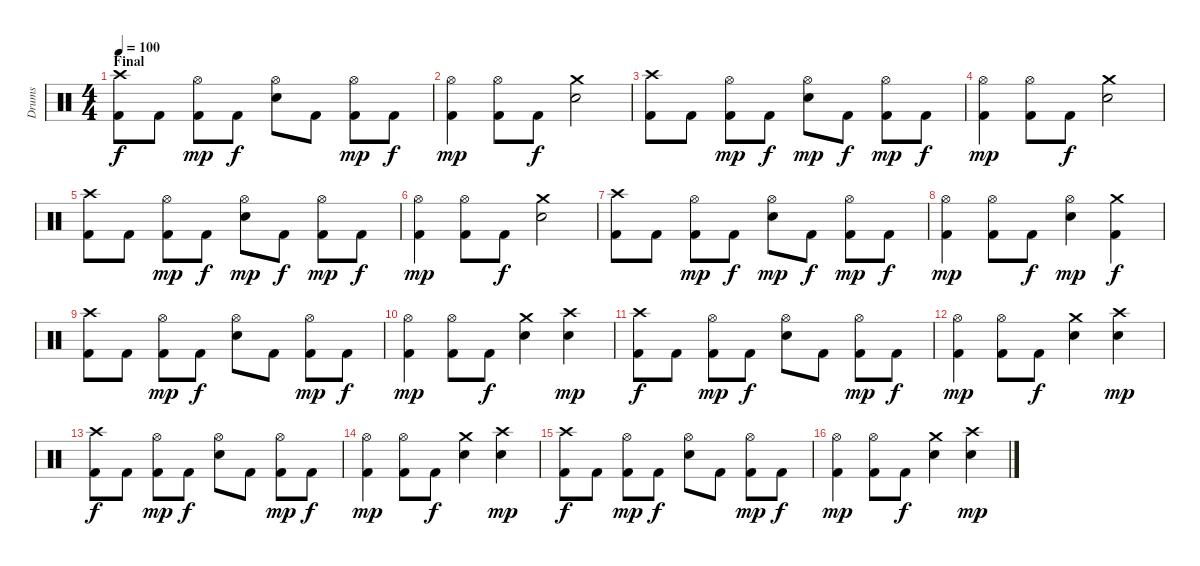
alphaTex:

\track ("Drums" "Drums") {instrument percussion}
\staff {score}
\articulation defaults
\ts (4 4)
\section ("" "Final")
\tempo 100
\clef neutral
\ks c
("Crash high (hit)" "Kick (hit) 2").8{dy f} "Kick (hit) 2".8 ("Hi-Hat (open)" "Kick (hit) 2").8{dy mp} "Kick (hit) 2".8{dy f} ("Hi-Hat (open)" "Snare (hit) 2").8 "Kick (hit) 2".8 ("Hi-Hat (open)" "Kick (hit) 2").8{dy mp} "Kick (hit) 2".8{dy f} |
("Hi-Hat (open)" "Kick (hit) 2").4{dy mp} ("Hi-Hat (open)" "Kick (hit) 2").8 "Kick (hit) 2".8{dy f} ("Crash medium (hit)" "Snare (hit) 2").2 |
("Crash high (hit)" "Kick (hit) 2").8 "Kick (hit) 2".8 ("Hi-Hat (open)" "Kick (hit) 2").8{dy mp} "Kick (hit) 2".8{dy f} ("Hi-Hat (open)" "Snare (hit) 2").8{dy mp} "Kick (hit) 2".8{dy f} ("Hi-Hat (open)" "Kick (hit) 2").8{dy mp} "Kick (hit) 2".8{dy f} |
("Hi-Hat (open)" "Kick (hit) 2").4{dy mp} ("Hi-Hat (open)" "Kick (hit) 2").8 "Kick (hit) 2".8{dy f} ("Crash medium (hit)" "Snare (hit) 2").2 |
("Crash high (hit)" "Kick (hit) 2").8 "Kick (hit) 2".8 ("Hi-Hat (open)" "Kick (hit) 2").8{dy mp} "Kick (hit) 2".8{dy f} ("Hi-Hat (open)" "Snare (hit) 2").8{dy mp} "Kick (hit) 2".8{dy f} ("Hi-Hat (open)" "Kick (hit) 2").8{dy mp} "Kick (hit) 2".8{dy f} |
("Hi-Hat (open)" "Kick (hit) 2").4{dy mp} ("Hi-Hat (open)" "Kick (hit) 2").8 "Kick (hit) 2".8{dy f} ("Crash medium (hit)" "Snare (hit) 2").2 |
("Crash high (hit)" "Kick (hit) 2").8 "Kick (hit) 2".8 ("Hi-Hat (open)" "Kick (hit) 2").8{dy mp} "Kick (hit) 2".8{dy f} ("Hi-Hat (open)" "Snare (hit) 2").8{dy mp} "Kick (hit) 2".8{dy f} ("Hi-Hat (open)" "Kick (hit) 2").8{dy mp} "Kick (hit) 2".8{dy f} |
("Hi-Hat (open)" "Kick (hit) 2").4{dy mp} ("Hi-Hat (open)" "Kick (hit) 2").8 "Kick (hit) 2".8{dy f} ("Hi-Hat (open)" "Snare (hit) 2").4{dy mp} ("Crash medium (hit)" "Kick (hit) 2").4{dy f} |
("Crash high (hit)" "Kick (hit) 2").8 "Kick (hit) 2".8 ("Hi-Hat (open)" "Kick (hit) 2").8{dy mp} "Kick (hit) 2".8{dy f} ("Hi-Hat (open)" "Snare (hit) 2").8 "Kick (hit) 2".8 ("Hi-Hat (open)" "Kick (hit) 2").8{dy mp} "Kick (hit) 2".8{dy f} |
("Hi-Hat (open)" "Kick (hit) 2").4{dy mp} ("Hi-Hat (open)" "Kick (hit) 2").8 "Kick (hit) 2".8{dy f} ("Crash medium (hit)" "Snare (hit) 2").4 ("Crash high (hit)" "Snare (hit) 2").4{dy mp} |
("Crash high (hit)" "Kick (hit) 2").8{dy f} "Kick (hit) 2".8 ("Hi-Hat (open)" "Kick (hit) 2").8{dy mp} "Kick (hit) 2".8{dy f} ("Hi-Hat (open)" "Snare (hit) 2").8 "Kick (hit) 2".8 ("Hi-Hat (open)" "Kick (hit) 2").8{dy mp} "Kick (hit) 2".8{dy f} |
("Hi-Hat (open)" "Kick (hit) 2").4{dy mp} ("Hi-Hat (open)" "Kick (hit) 2").8 "Kick (hit) 2".8{dy f} ("Crash medium (hit)" "Snare (hit) 2").4 ("Crash high (hit)" "Snare (hit) 2").4{dy mp} |
("Crash high (hit)" "Kick (hit) 2").8{dy f} "Kick (hit) 2".8 ("Hi-Hat (open)" "Kick (hit) 2").8{dy mp} "Kick (hit) 2".8{dy f} ("Hi-Hat (open)" "Snare (hit) 2").8 "Kick (hit) 2".8 ("Hi-Hat (open)" "Kick (hit) 2").8{dy mp} "Kick (hit) 2".8{dy f} |
("Hi-Hat (open)" "Kick (hit) 2").4{dy mp} ("Hi-Hat (open)" "Kick (hit) 2").8 "Kick (hit) 2".8{dy f} ("Crash medium (hit)" "Snare (hit) 2").4 ("Crash high (hit)" "Snare (hit) 2").4{dy mp} |
("Crash high (hit)" "Kick (hit) 2").8{dy f} "Kick (hit) 2".8 ("Hi-Hat (open)" "Kick (hit) 2").8{dy mp} "Kick (hit) 2".8{dy f} ("Hi-Hat (open)" "Snare (hit) 2").8 "Kick (hit) 2".8 ("Hi-Hat (open)" "Kick (hit) 2").8{dy mp} "Kick (hit) 2".8{dy f} |
("Hi-Hat (open)" "Kick (hit) 2").4{dy mp} ("Hi-Hat (open)" "Kick (hit) 2").8 "Kick (hit) 2".8{dy f} ("Crash medium (hit)" "Snare (hit) 2").4 ("Crash high (hit)" "Snare (hit) 2").4{dy mp}
